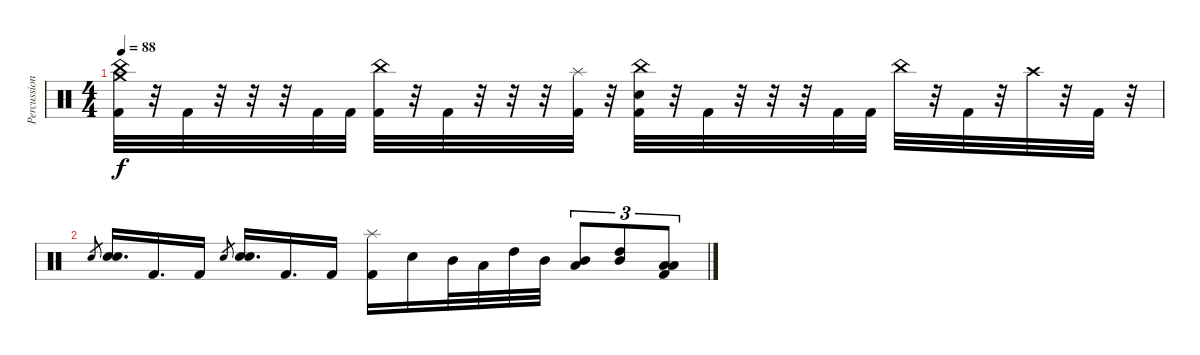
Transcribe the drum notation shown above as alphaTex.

\track ("Percussion" "Percussion") {instrument percussion}
\staff {score}
\articulation defaults
\ts (4 4)
\tempo 88
\clef neutral
\ks c
("China (hit)" "Crash medium (hit)" "Kick (hit) 2").32{dy f} r.32 "Kick (hit) 2".32 r.32 r.32 r.32 "Kick (hit) 2".32 "Kick (hit) 2".32 ("China (hit)" "Kick (hit) 2").32 r.32 "Kick (hit) 2".32 r.32 r.32 r.32 ("Splash (hit)" "Kick (hit) 2").32 r.32 ("China (hit)" "Snare (hit) 2" "Kick (hit) 2").32 r.32 "Kick (hit) 2".32 r.32 r.32 r.32 "Kick (hit) 2".32 "Kick (hit) 2".32 "China (hit)".32 r.32 "Kick (hit) 2".32 r.32 "Crash high (hit)".32 r.32 "Kick (hit) 2".32 r.32 |
"Snare (hit) 2"{sl}.8{gr} ("Snare (hit) 2" "Snare (hit) 2").16{d} "Kick (hit) 2".16{d} "Kick (hit) 2".16 "Snare (hit) 2"{sl}.8{gr} ("Snare (hit) 2" "Snare (hit) 2").16{d} "Kick (hit) 2".16{d} "Kick (hit) 2".16 ("Splash (hit)" "Kick (hit) 2").16 "Snare (hit) 2".16 "Mid Tom (hit)".32 "Low Tom (hit)".32 "High Tom (hit)".32 "Mid Tom (hit)".32 ("Mid Tom (hit)" "Low Tom (hit)").8{tu (3 2)} ("Mid Tom (hit)" "High Tom (hit)").8{tu (3 2)} ("Low Floor Tom (hit)" "Low Tom (hit)" "Kick (hit) 2").8{tu (3 2)}
